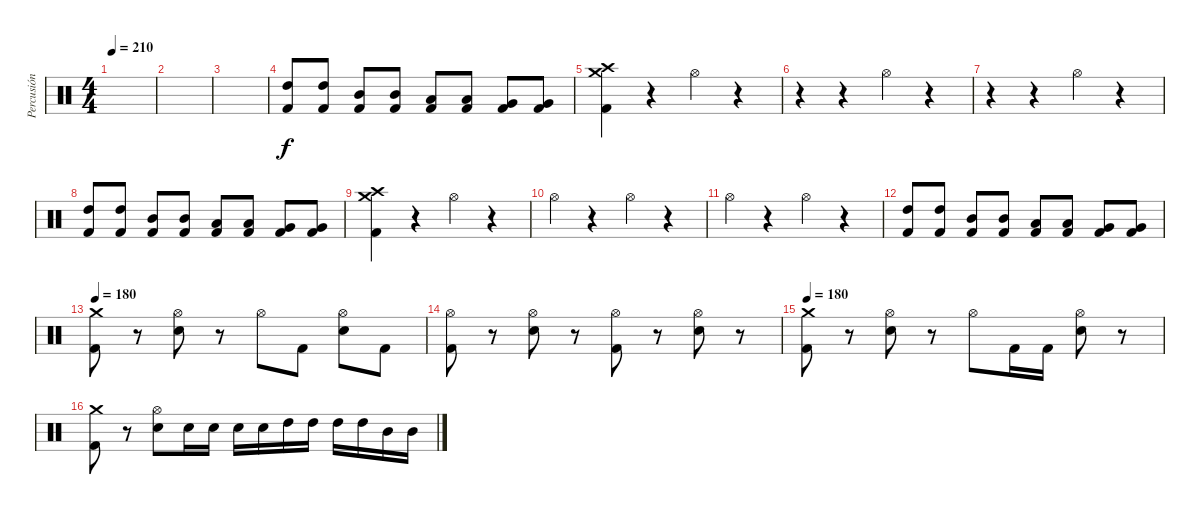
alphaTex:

\track ("Percusión" "Percusión") {instrument percussion}
\staff {score}
\articulation defaults
\ts (4 4)
\tempo 210
\clef neutral
\ks c
|
|
|
("High Tom (hit)" "Kick (hit) 2").8 ("High Tom (hit)" "Kick (hit) 2").8 ("Mid Tom (hit)" "Kick (hit) 2").8 ("Mid Tom (hit)" "Kick (hit) 2").8 ("Low Tom (hit)" "Kick (hit) 2").8 ("Low Tom (hit)" "Kick (hit) 2").8 ("Very Low Tom (hit)" "Kick (hit) 2").8 ("Very Low Tom (hit)" "Kick (hit) 2").8 |
("Crash medium (hit)" "Crash high (hit)" "Kick (hit) 2").4 r.4 "Hi-Hat (open)".4 r.4 |
r.4 r.4 "Hi-Hat (open)".4 r.4 |
r.4 r.4 "Hi-Hat (open)".4 r.4 |
("High Tom (hit)" "Kick (hit) 2").8 ("High Tom (hit)" "Kick (hit) 2").8 ("Mid Tom (hit)" "Kick (hit) 2").8 ("Mid Tom (hit)" "Kick (hit) 2").8 ("Low Tom (hit)" "Kick (hit) 2").8 ("Low Tom (hit)" "Kick (hit) 2").8 ("Very Low Tom (hit)" "Kick (hit) 2").8 ("Very Low Tom (hit)" "Kick (hit) 2").8 |
("Crash medium (hit)" "Crash high (hit)" "Kick (hit) 2").4 r.4 "Hi-Hat (open)".4 r.4 |
"Hi-Hat (open)".4 r.4 "Hi-Hat (open)".4 r.4 |
"Hi-Hat (open)".4 r.4 "Hi-Hat (open)".4 r.4 |
("High Tom (hit)" "Kick (hit) 2").8 ("High Tom (hit)" "Kick (hit) 2").8 ("Mid Tom (hit)" "Kick (hit) 2").8 ("Mid Tom (hit)" "Kick (hit) 2").8 ("Low Tom (hit)" "Kick (hit) 2").8 ("Low Tom (hit)" "Kick (hit) 2").8 ("Very Low Tom (hit)" "Kick (hit) 2").8 ("Very Low Tom (hit)" "Kick (hit) 2").8 |
\tempo 180
("Crash medium (hit)" "Kick (hit) 2").8 r.8 ("Hi-Hat (open)" "Electric Snare (hit)").8 r.8 "Hi-Hat (open)".8 "Kick (hit) 2".8 ("Hi-Hat (open)" "Electric Snare (hit)").8 "Kick (hit) 2".8 |
("Hi-Hat (open)" "Kick (hit) 2").8 r.8 ("Hi-Hat (open)" "Electric Snare (hit)").8 r.8 ("Hi-Hat (open)" "Kick (hit) 2").8 r.8 ("Hi-Hat (open)" "Electric Snare (hit)").8 r.8 |
\tempo 180
("Crash medium (hit)" "Kick (hit) 2").8 r.8 ("Hi-Hat (open)" "Electric Snare (hit)").8 r.8 "Hi-Hat (open)".8 "Kick (hit) 2".16 "Kick (hit) 2".16 ("Hi-Hat (open)" "Electric Snare (hit)").8 r.8 |
("Crash medium (hit)" "Kick (hit) 2").8 r.8 ("Hi-Hat (open)" "Electric Snare (hit)").8 "Electric Snare (hit)".16 "Electric Snare (hit)".16 "Electric Snare (hit)".16 "Electric Snare (hit)".16 "High Tom (hit)".16 "High Tom (hit)".16 "High Tom (hit)".16 "High Tom (hit)".16 "Mid Tom (hit)".16 "Mid Tom (hit)".16
